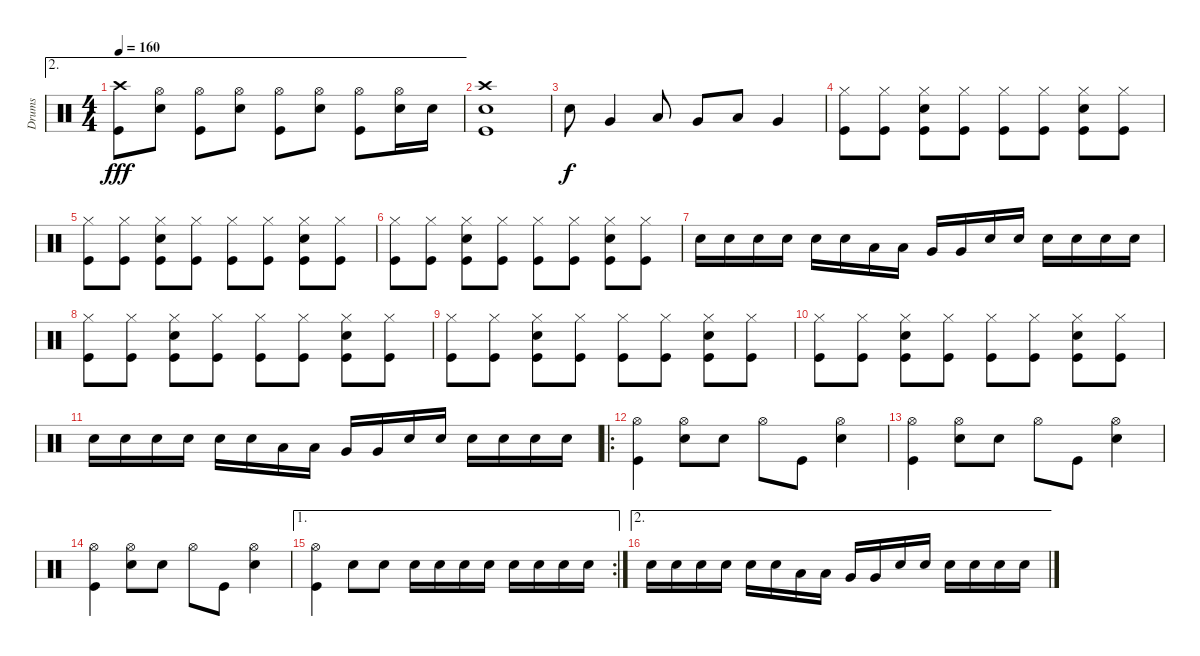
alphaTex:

\track ("Drums" "Drums") {instrument percussion}
\staff {score}
\articulation defaults
\ae 2
\ts (4 4)
\tempo 160
\clef neutral
\ks c
("Crash high (hit)" "Kick (hit)").8{dy fff} ("Hi-Hat (open)" "Electric Snare (hit)").8 ("Hi-Hat (open)" "Kick (hit)").8 ("Hi-Hat (open)" "Electric Snare (hit)").8 ("Hi-Hat (open)" "Kick (hit)").8 ("Hi-Hat (open)" "Electric Snare (hit)").8 ("Hi-Hat (open)" "Kick (hit)").8 ("Hi-Hat (open)" "Electric Snare (hit)").16 "Electric Snare (hit)".16 |
("Crash high (hit)" "Kick (hit)" "Electric Snare (hit)").1 |
"Electric Snare (hit)".8{dy f} "Very Low Tom (hit)".4 "Low Tom (hit)".8 "Very Low Tom (hit)".8 "Low Floor Tom (hit)".8 "Very Low Tom (hit)".4 |
("Hi-Hat (closed)" "Kick (hit)").8 ("Hi-Hat (closed)" "Kick (hit)").8 ("Hi-Hat (closed)" "Kick (hit)" "Electric Snare (hit)").8 ("Hi-Hat (closed)" "Kick (hit)").8 ("Hi-Hat (closed)" "Kick (hit)").8 ("Hi-Hat (closed)" "Kick (hit)").8 ("Hi-Hat (closed)" "Kick (hit)" "Electric Snare (hit)").8 ("Hi-Hat (closed)" "Kick (hit)").8 |
("Hi-Hat (closed)" "Kick (hit)").8 ("Hi-Hat (closed)" "Kick (hit)").8 ("Hi-Hat (closed)" "Kick (hit)" "Electric Snare (hit)").8 ("Hi-Hat (closed)" "Kick (hit)").8 ("Hi-Hat (closed)" "Kick (hit)").8 ("Hi-Hat (closed)" "Kick (hit)").8 ("Hi-Hat (closed)" "Kick (hit)" "Electric Snare (hit)").8 ("Hi-Hat (closed)" "Kick (hit)").8 |
("Hi-Hat (closed)" "Kick (hit)").8 ("Hi-Hat (closed)" "Kick (hit)").8 ("Hi-Hat (closed)" "Kick (hit)" "Electric Snare (hit)").8 ("Hi-Hat (closed)" "Kick (hit)").8 ("Hi-Hat (closed)" "Kick (hit)").8 ("Hi-Hat (closed)" "Kick (hit)").8 ("Hi-Hat (closed)" "Kick (hit)" "Electric Snare (hit)").8 ("Hi-Hat (closed)" "Kick (hit)").8 |
"Electric Snare (hit)".16 "Electric Snare (hit)".16 "Electric Snare (hit)".16 "Electric Snare (hit)".16 "Electric Snare (hit)".16 "Electric Snare (hit)".16 "Low Tom (hit)".16 "Low Tom (hit)".16 "Very Low Tom (hit)".16 "Very Low Tom (hit)".16 "Electric Snare (hit)".16 "Electric Snare (hit)".16 "Electric Snare (hit)".16 "Electric Snare (hit)".16 "Electric Snare (hit)".16 "Electric Snare (hit)".16 |
("Hi-Hat (closed)" "Kick (hit)").8 ("Hi-Hat (closed)" "Kick (hit)").8 ("Hi-Hat (closed)" "Kick (hit)" "Electric Snare (hit)").8 ("Hi-Hat (closed)" "Kick (hit)").8 ("Hi-Hat (closed)" "Kick (hit)").8 ("Hi-Hat (closed)" "Kick (hit)").8 ("Hi-Hat (closed)" "Kick (hit)" "Electric Snare (hit)").8 ("Hi-Hat (closed)" "Kick (hit)").8 |
("Hi-Hat (closed)" "Kick (hit)").8 ("Hi-Hat (closed)" "Kick (hit)").8 ("Hi-Hat (closed)" "Kick (hit)" "Electric Snare (hit)").8 ("Hi-Hat (closed)" "Kick (hit)").8 ("Hi-Hat (closed)" "Kick (hit)").8 ("Hi-Hat (closed)" "Kick (hit)").8 ("Hi-Hat (closed)" "Kick (hit)" "Electric Snare (hit)").8 ("Hi-Hat (closed)" "Kick (hit)").8 |
("Hi-Hat (closed)" "Kick (hit)").8 ("Hi-Hat (closed)" "Kick (hit)").8 ("Hi-Hat (closed)" "Kick (hit)" "Electric Snare (hit)").8 ("Hi-Hat (closed)" "Kick (hit)").8 ("Hi-Hat (closed)" "Kick (hit)").8 ("Hi-Hat (closed)" "Kick (hit)").8 ("Hi-Hat (closed)" "Kick (hit)" "Electric Snare (hit)").8 ("Hi-Hat (closed)" "Kick (hit)").8 |
"Electric Snare (hit)".16 "Electric Snare (hit)".16 "Electric Snare (hit)".16 "Electric Snare (hit)".16 "Electric Snare (hit)".16 "Electric Snare (hit)".16 "Low Tom (hit)".16 "Low Tom (hit)".16 "Very Low Tom (hit)".16 "Very Low Tom (hit)".16 "Electric Snare (hit)".16 "Electric Snare (hit)".16 "Electric Snare (hit)".16 "Electric Snare (hit)".16 "Electric Snare (hit)".16 "Electric Snare (hit)".16 |
\ro
("Hi-Hat (open)" "Kick (hit)").4 ("Hi-Hat (open)" "Electric Snare (hit)").8 "Electric Snare (hit)".8 "Hi-Hat (open)".8 "Kick (hit)".8 ("Hi-Hat (open)" "Electric Snare (hit)").4 |
("Hi-Hat (open)" "Kick (hit)").4 ("Hi-Hat (open)" "Electric Snare (hit)").8 "Electric Snare (hit)".8 "Hi-Hat (open)".8 "Kick (hit)".8 ("Hi-Hat (open)" "Electric Snare (hit)").4 |
("Hi-Hat (open)" "Kick (hit)").4 ("Hi-Hat (open)" "Electric Snare (hit)").8 "Electric Snare (hit)".8 "Hi-Hat (open)".8 "Kick (hit)".8 ("Hi-Hat (open)" "Electric Snare (hit)").4 |
\ae 1
\rc 2
("Hi-Hat (open)" "Kick (hit)").4 "Electric Snare (hit)".8 "Electric Snare (hit)".8 "Electric Snare (hit)".16 "Electric Snare (hit)".16 "Electric Snare (hit)".16 "Electric Snare (hit)".16 "Electric Snare (hit)".16 "Electric Snare (hit)".16 "Electric Snare (hit)".16 "Electric Snare (hit)".16 |
\ae 2 "Electric Snare (hit)".16 "Electric Snare (hit)".16 "Electric Snare (hit)".16 "Electric Snare (hit)".16 "Electric Snare (hit)".16 "Electric Snare (hit)".16 "Low Tom (hit)".16 "Low Tom (hit)".16 "Very Low Tom (hit)".16 "Very Low Tom (hit)".16 "Electric Snare (hit)".16 "Electric Snare (hit)".16 "Electric Snare (hit)".16 "Electric Snare (hit)".16 "Electric Snare (hit)".16 "Electric Snare (hit)".16
